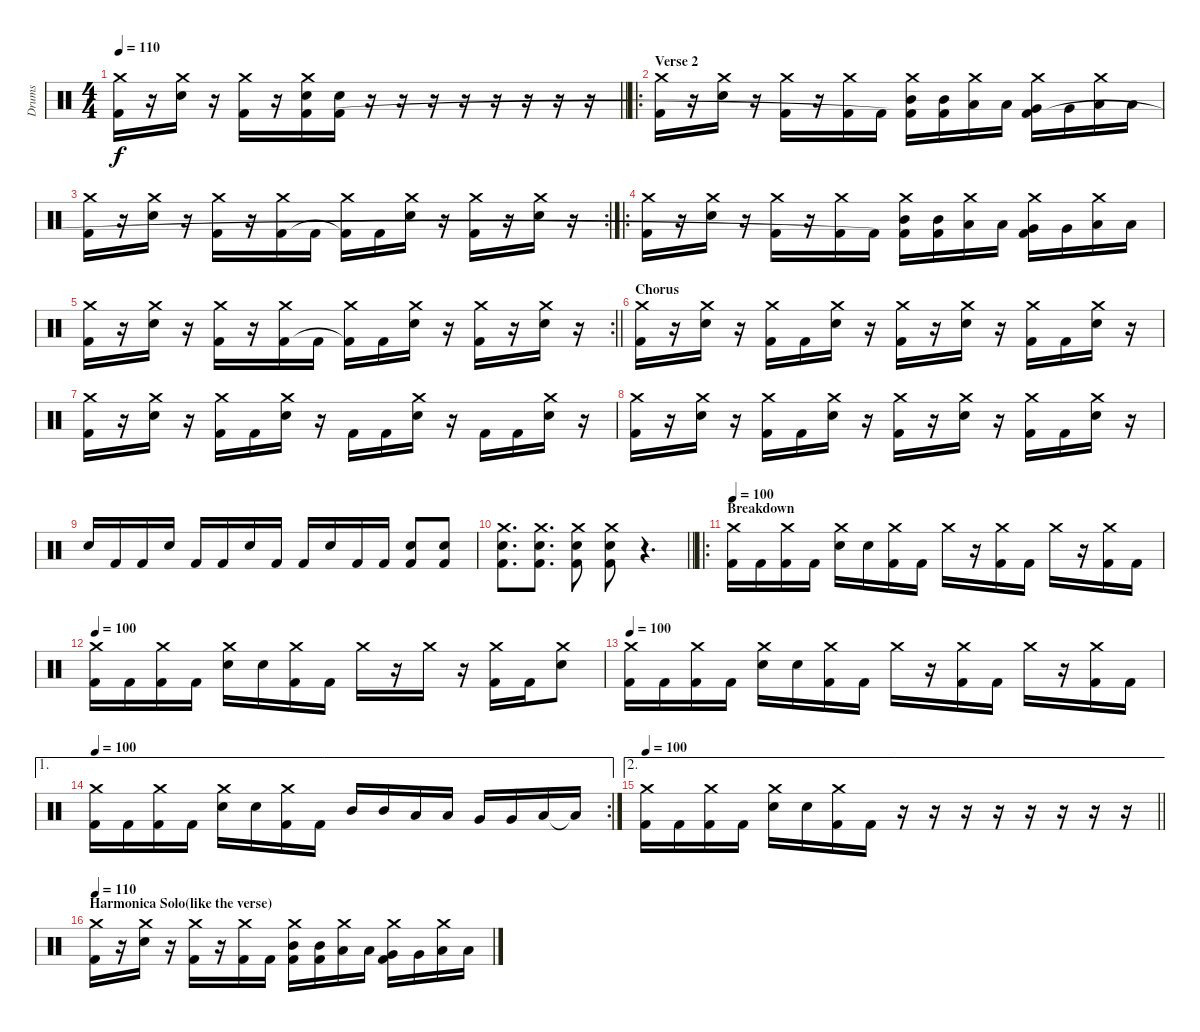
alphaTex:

\track ("Drums" "Drums") {instrument percussion}
\staff {score}
\articulation defaults
\ts (4 4)
\tempo 110
\clef neutral
\barLineRight lightlight
\ks c
("Crash medium (hit)" "Kick (hit) 2").16{dy f} r.16 ("Crash medium (hit)" "Electric Snare (hit)").16 r.16 ("Crash medium (hit)" "Kick (hit) 2").16 r.16 ("Crash medium (hit)" "Electric Snare (hit)" "Kick (hit) 2").16 ("Electric Snare (hit)" "Kick (hit) 2").16 r.16 r.16 r.16 r.16 r.16 r.16 r.16 r.16 |
\ro
\section ("" "Verse 2")
("Crash medium (hit)" "Kick (hit) 2").16 r.16 ("Crash medium (hit)" "Electric Snare (hit)").16 r.16 ("Crash medium (hit)" "Kick (hit) 2").16 r.16 ("Crash medium (hit)" "Kick (hit) 2").16 "Kick (hit) 2".16 ("Crash medium (hit)" "Mid Tom (hit)" "Kick (hit) 2"{t}).16 ("Mid Tom (hit)" "Kick (hit) 2").16 ("Crash medium (hit)" "Low Tom (hit)").16 "Low Tom (hit)".16 ("Crash medium (hit)" "Very Low Tom (hit)" "Kick (hit) 2").16 "Very Low Tom (hit)".16 ("Crash medium (hit)" "Low Floor Tom (hit)").16 "Low Floor Tom (hit)".16 |
\rc 2
("Crash medium (hit)" "Kick (hit) 2").16 r.16 ("Crash medium (hit)" "Electric Snare (hit)").16 r.16 ("Crash medium (hit)" "Kick (hit) 2").16 r.16 ("Crash medium (hit)" "Kick (hit) 2").16 "Kick (hit) 2".16 ("Crash medium (hit)" "Kick (hit) 2"{t}).16 "Kick (hit) 2".16 ("Crash medium (hit)" "Electric Snare (hit)").16 r.16 ("Crash medium (hit)" "Kick (hit) 2").16 r.16 ("Crash medium (hit)" "Electric Snare (hit)").16 r.16 |
\ro
("Crash medium (hit)" "Kick (hit) 2").16 r.16 ("Crash medium (hit)" "Electric Snare (hit)").16 r.16 ("Crash medium (hit)" "Kick (hit) 2").16 r.16 ("Crash medium (hit)" "Kick (hit) 2").16 "Kick (hit) 2".16 ("Crash medium (hit)" "Mid Tom (hit)" "Kick (hit) 2"{t}).16 ("Mid Tom (hit)" "Kick (hit) 2").16 ("Crash medium (hit)" "Low Tom (hit)").16 "Low Tom (hit)".16 ("Crash medium (hit)" "Very Low Tom (hit)" "Kick (hit) 2").16 "Very Low Tom (hit)".16 ("Crash medium (hit)" "Low Floor Tom (hit)").16 "Low Floor Tom (hit)".16 |
\rc 2
\barLineRight lightlight
("Crash medium (hit)" "Kick (hit) 2").16 r.16 ("Crash medium (hit)" "Electric Snare (hit)").16 r.16 ("Crash medium (hit)" "Kick (hit) 2").16 r.16 ("Crash medium (hit)" "Kick (hit) 2").16 "Kick (hit) 2".16 ("Crash medium (hit)" "Kick (hit) 2"{t}).16 "Kick (hit) 2".16 ("Crash medium (hit)" "Electric Snare (hit)").16 r.16 ("Crash medium (hit)" "Kick (hit) 2").16 r.16 ("Crash medium (hit)" "Electric Snare (hit)").16 r.16 |
\section ("" "Chorus")
("Crash medium (hit)" "Kick (hit) 2").16 r.16 ("Crash medium (hit)" "Electric Snare (hit)").16 r.16 ("Crash medium (hit)" "Kick (hit) 2").16 "Kick (hit) 2".16 ("Crash medium (hit)" "Electric Snare (hit)").16 r.16 ("Crash medium (hit)" "Kick (hit) 2").16 r.16 ("Crash medium (hit)" "Electric Snare (hit)").16 r.16 ("Crash medium (hit)" "Kick (hit) 2").16 "Kick (hit) 2".16 ("Crash medium (hit)" "Electric Snare (hit)").16 r.16 |
("Crash medium (hit)" "Kick (hit) 2").16 r.16 ("Crash medium (hit)" "Electric Snare (hit)").16 r.16 ("Crash medium (hit)" "Kick (hit) 2").16 "Kick (hit) 2".16 ("Crash medium (hit)" "Electric Snare (hit)").16 r.16 "Kick (hit) 2".16 "Kick (hit) 2".16 ("Crash medium (hit)" "Electric Snare (hit)").16 r.16 "Kick (hit) 2".16 "Kick (hit) 2".16 ("Crash medium (hit)" "Electric Snare (hit)").16 r.16 |
("Crash medium (hit)" "Kick (hit) 2").16 r.16 ("Crash medium (hit)" "Electric Snare (hit)").16 r.16 ("Crash medium (hit)" "Kick (hit) 2").16 "Kick (hit) 2".16 ("Crash medium (hit)" "Electric Snare (hit)").16 r.16 ("Crash medium (hit)" "Kick (hit) 2").16 r.16 ("Crash medium (hit)" "Electric Snare (hit)").16 r.16 ("Crash medium (hit)" "Kick (hit) 2").16 "Kick (hit) 2".16 ("Crash medium (hit)" "Electric Snare (hit)").16 r.16 |
"Electric Snare (hit)".16 "Kick (hit) 2".16 "Kick (hit) 2".16 "Electric Snare (hit)".16 "Kick (hit) 2".16 "Kick (hit) 2".16 "Electric Snare (hit)".16 "Kick (hit) 2".16 "Kick (hit) 2".16 "Electric Snare (hit)".16 "Kick (hit) 2".16 "Kick (hit) 2".16 ("Electric Snare (hit)" "Kick (hit) 2").8 ("Electric Snare (hit)" "Kick (hit) 2").8 |
\barLineRight lightlight
("Crash medium (hit)" "Electric Snare (hit)" "Kick (hit) 2").8{d} ("Crash medium (hit)" "Electric Snare (hit)" "Kick (hit) 2").8{d} ("Crash medium (hit)" "Electric Snare (hit)" "Kick (hit) 2").8 ("Crash medium (hit)" "Electric Snare (hit)" "Kick (hit) 2").8 r.4{d} |
\ro
\section ("" "Breakdown")
\tempo 100
("Crash medium (hit)" "Kick (hit) 2").16 "Kick (hit) 2".16 ("Crash medium (hit)" "Kick (hit) 2").16 "Kick (hit) 2".16 ("Crash medium (hit)" "Electric Snare (hit)").16 "Electric Snare (hit)".16 ("Crash medium (hit)" "Kick (hit) 2").16 "Kick (hit) 2".16 "Crash medium (hit)".16 r.16 ("Crash medium (hit)" "Kick (hit) 2").16 "Kick (hit) 2".16 "Crash medium (hit)".16 r.16 ("Crash medium (hit)" "Kick (hit) 2").16 "Kick (hit) 2".16 |
\tempo 100
("Crash medium (hit)" "Kick (hit) 2").16 "Kick (hit) 2".16 ("Crash medium (hit)" "Kick (hit) 2").16 "Kick (hit) 2".16 ("Crash medium (hit)" "Electric Snare (hit)").16 "Electric Snare (hit)".16 ("Crash medium (hit)" "Kick (hit) 2").16 "Kick (hit) 2".16 "Crash medium (hit)".16 r.16 "Crash medium (hit)".16 r.16 ("Crash medium (hit)" "Kick (hit) 2").16 "Kick (hit) 2".16 ("Crash medium (hit)" "Electric Snare (hit)").8 |
\tempo 100
("Crash medium (hit)" "Kick (hit) 2").16 "Kick (hit) 2".16 ("Crash medium (hit)" "Kick (hit) 2").16 "Kick (hit) 2".16 ("Crash medium (hit)" "Electric Snare (hit)").16 "Electric Snare (hit)".16 ("Crash medium (hit)" "Kick (hit) 2").16 "Kick (hit) 2".16 "Crash medium (hit)".16 r.16 ("Crash medium (hit)" "Kick (hit) 2").16 "Kick (hit) 2".16 "Crash medium (hit)".16 r.16 ("Crash medium (hit)" "Kick (hit) 2").16 "Kick (hit) 2".16 |
\ae 1
\rc 2
\tempo 100
("Crash medium (hit)" "Kick (hit) 2").16 "Kick (hit) 2".16 ("Crash medium (hit)" "Kick (hit) 2").16 "Kick (hit) 2".16 ("Crash medium (hit)" "Electric Snare (hit)").16 "Electric Snare (hit)".16 ("Crash medium (hit)" "Kick (hit) 2").16 "Kick (hit) 2".16 "Mid Tom (hit)".16 "Mid Tom (hit)".16 "Low Tom (hit)".16 "Low Tom (hit)".16 "Very Low Tom (hit)".16 "Very Low Tom (hit)".16 "Low Floor Tom (hit)".16 "Low Floor Tom (hit)"{t}.16 |
\ae 2
\tempo 100
\barLineRight lightlight
("Crash medium (hit)" "Kick (hit) 2").16 "Kick (hit) 2".16 ("Crash medium (hit)" "Kick (hit) 2").16 "Kick (hit) 2".16 ("Crash medium (hit)" "Electric Snare (hit)").16 "Electric Snare (hit)".16 ("Crash medium (hit)" "Kick (hit) 2").16 "Kick (hit) 2".16 r.16 r.16 r.16 r.16 r.16 r.16 r.16 r.16 |
\section ("" "Harmonica Solo(like the verse)")
\tempo 110
("Crash medium (hit)" "Kick (hit) 2").16 r.16 ("Crash medium (hit)" "Electric Snare (hit)").16 r.16 ("Crash medium (hit)" "Kick (hit) 2").16 r.16 ("Crash medium (hit)" "Kick (hit) 2").16 "Kick (hit) 2".16 ("Crash medium (hit)" "Mid Tom (hit)" "Kick (hit) 2").16 ("Mid Tom (hit)" "Kick (hit) 2").16 ("Crash medium (hit)" "Low Tom (hit)").16 "Low Tom (hit)".16 ("Crash medium (hit)" "Very Low Tom (hit)" "Kick (hit) 2").16 "Very Low Tom (hit)".16 ("Crash medium (hit)" "Low Floor Tom (hit)").16 "Low Floor Tom (hit)".16
